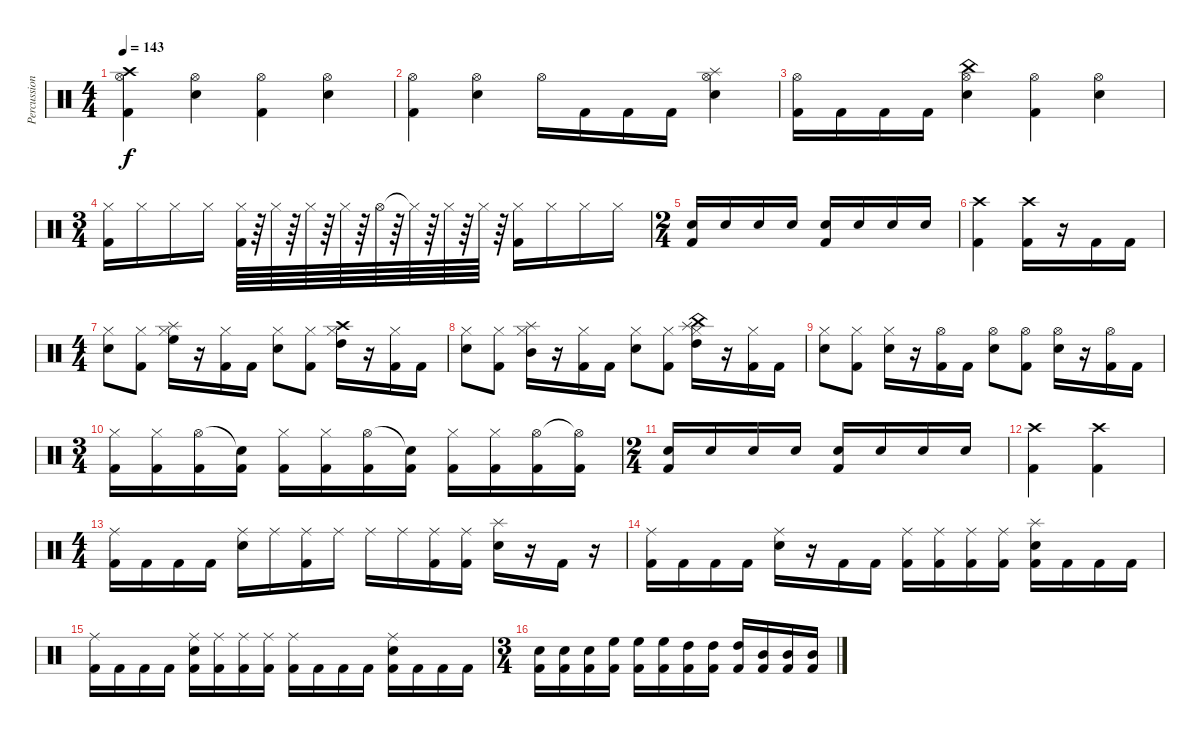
\track ("Percussions" "Percussion") {instrument percussion}
\staff {score}
\articulation defaults
\ts (4 4)
\tempo 143
\clef neutral
\ks c
("Hi-Hat (open)" "Crash high (hit)" "Kick (hit) 2").4{dy f} ("Hi-Hat (open)" "Snare (hit) 2").4 ("Hi-Hat (open)" "Kick (hit) 2").4 ("Hi-Hat (open)" "Snare (hit) 2").4 |
("Hi-Hat (open)" "Kick (hit) 2").4 ("Hi-Hat (open)" "Snare (hit) 2").4 "Hi-Hat (open)".16 "Kick (hit) 2".16 "Kick (hit) 2".16 "Kick (hit) 2".16 ("Hi-Hat (open)" "Splash (hit)" "Snare (hit) 2").4 |
("Hi-Hat (open)" "Kick (hit) 2").16 "Kick (hit) 2".16 "Kick (hit) 2".16 "Kick (hit) 2".16 ("Hi-Hat (open)" "China (hit)" "Snare (hit) 2").4 ("Hi-Hat (open)" "Kick (hit) 2").4 ("Hi-Hat (open)" "Snare (hit) 2").4 |
\ts (3 4)
("Hi-Hat (closed)" "Kick (hit) 2").16 "Hi-Hat (closed)".16 "Hi-Hat (closed)".16 "Hi-Hat (closed)".16 ("Hi-Hat (closed)" "Kick (hit) 2").64 r.64 "Hi-Hat (closed)".64 r.64 "Hi-Hat (closed)".64 r.64 "Hi-Hat (closed)".64 r.64 "Hi-Hat (open)".64 r.64 "Hi-Hat (closed)"{t}.64 r.64 "Hi-Hat (closed)".64 r.64 "Hi-Hat (closed)".64 r.64 ("Hi-Hat (closed)" "Kick (hit) 2").16 "Hi-Hat (closed)".16 "Hi-Hat (closed)".16 "Hi-Hat (closed)".16 |
\ts (2 4)
("Snare (hit) 2" "Kick (hit) 2").16 "Snare (hit) 2".16 "Snare (hit) 2".16 "Snare (hit) 2".16 ("Snare (hit) 2" "Kick (hit) 2").16 "Snare (hit) 2".16 "Snare (hit) 2".16 "Snare (hit) 2".16 |
("Crash high (hit)" "Kick (hit) 2").4 ("Crash high (hit)" "Kick (hit) 2").16 r.16 "Kick (hit) 2".16 "Kick (hit) 2".16 |
\ts (4 4)
("Hi-Hat (closed)" "Snare (hit) 2").8 ("Hi-Hat (closed)" "Kick (hit) 2").8 ("Hi-Hat (closed)" "Splash (hit)" "High Floor Tom (hit)").16 r.16 ("Hi-Hat (closed)" "Kick (hit) 2").16 "Kick (hit) 2".16 ("Hi-Hat (closed)" "Snare (hit) 2").8 ("Hi-Hat (closed)" "Kick (hit) 2").8 ("Hi-Hat (closed)" "Crash high (hit)" "High Tom (hit)").16 r.16 ("Hi-Hat (closed)" "Kick (hit) 2").16 "Kick (hit) 2".16 |
("Hi-Hat (closed)" "Snare (hit) 2").8 ("Hi-Hat (closed)" "Kick (hit) 2").8 ("Hi-Hat (closed)" "Splash (hit)" "Mid Tom (hit)").16 r.16 ("Hi-Hat (closed)" "Kick (hit) 2").16 "Kick (hit) 2".16 ("Hi-Hat (closed)" "Snare (hit) 2").8 ("Hi-Hat (closed)" "Kick (hit) 2").8 ("Hi-Hat (closed)" "China (hit)" "High Tom (hit)" "Splash (hit)").16 r.16 ("Hi-Hat (closed)" "Kick (hit) 2").16 "Kick (hit) 2".16 |
("Hi-Hat (closed)" "Snare (hit) 2").8 ("Hi-Hat (closed)" "Kick (hit) 2").8 ("Hi-Hat (closed)" "Snare (hit) 2").16 r.16 ("Hi-Hat (open)" "Kick (hit) 2").16 "Kick (hit) 2".16 ("Hi-Hat (open)" "Snare (hit) 2").8 ("Hi-Hat (open)" "Kick (hit) 2").8 ("Hi-Hat (open)" "Snare (hit) 2").16 r.16 ("Hi-Hat (open)" "Kick (hit) 2").16 "Kick (hit) 2".16 |
\ts (3 4)
("Hi-Hat (closed)" "Kick (hit) 2").16 ("Hi-Hat (closed)" "Kick (hit) 2").16 ("Hi-Hat (open)" "Kick (hit) 2").16 ("Snare (hit)"{t} "Kick (hit) 2").16 ("Hi-Hat (closed)" "Kick (hit) 2").16 ("Hi-Hat (closed)" "Kick (hit) 2").16 ("Hi-Hat (open)" "Kick (hit) 2").16 ("Snare (hit)"{t} "Kick (hit) 2").16 ("Hi-Hat (closed)" "Kick (hit) 2").16 ("Hi-Hat (closed)" "Kick (hit) 2").16 ("Hi-Hat (open)" "Kick (hit) 2").16 ("Hi-Hat (open)"{t} "Kick (hit) 2").16 |
\ts (2 4)
("Snare (hit) 2" "Kick (hit) 2").16 "Snare (hit) 2".16 "Snare (hit) 2".16 "Snare (hit) 2".16 ("Snare (hit) 2" "Kick (hit) 2").16 "Snare (hit) 2".16 "Snare (hit) 2".16 "Snare (hit) 2".16 |
("Crash high (hit)" "Kick (hit) 2").4 ("Crash high (hit)" "Kick (hit) 2").4 |
\ts (4 4)
("Ride (middle)" "Kick (hit) 2").16 "Kick (hit) 2".16 "Kick (hit) 2".16 "Kick (hit) 2".16 ("Ride (middle)" "Snare (hit) 2").16 "Ride (middle)".16 ("Ride (middle)" "Kick (hit) 2").16 "Ride (middle)".16 "Ride (middle)".16 "Ride (middle)".16 ("Ride (middle)" "Kick (hit) 2").16 ("Ride (middle)" "Kick (hit) 2").16 ("Splash (hit)" "Snare (hit) 2").16 r.16 "Kick (hit) 2".16 r.16 |
("Ride (middle)" "Kick (hit) 2").16 "Kick (hit) 2".16 "Kick (hit) 2".16 "Kick (hit) 2".16 ("Ride (middle)" "Snare (hit) 2").16 r.16 "Kick (hit) 2".16 "Kick (hit) 2".16 ("Ride (middle)" "Kick (hit) 2").16 ("Ride (middle)" "Kick (hit) 2").16 ("Ride (middle)" "Kick (hit) 2").16 ("Ride (middle)" "Kick (hit) 2").16 ("Splash (hit)" "Snare (hit) 2" "Kick (hit) 2").16 "Kick (hit) 2".16 "Kick (hit) 2".16 "Kick (hit) 2".16 |
("Ride (middle)" "Kick (hit) 2").16 "Kick (hit) 2".16 "Kick (hit) 2".16 "Kick (hit) 2".16 ("Ride (middle)" "Snare (hit) 2" "Kick (hit) 2").16 ("Ride (middle)" "Kick (hit) 2").16 ("Ride (middle)" "Kick (hit) 2").16 ("Ride (middle)" "Kick (hit) 2").16 ("Ride (middle)" "Kick (hit) 2").16 "Kick (hit) 2".16 "Kick (hit) 2".16 "Kick (hit) 2".16 ("Ride (middle)" "Snare (hit) 2" "Kick (hit) 2").16 "Kick (hit) 2".16 "Kick (hit) 2".16 "Kick (hit) 2".16 |
\ts (3 4)
("Snare (hit) 2" "Kick (hit) 2").16 ("Snare (hit) 2" "Kick (hit) 2").16 ("Snare (hit) 2" "Kick (hit) 2").16 ("High Floor Tom (hit)" "Kick (hit) 2").16 ("High Floor Tom (hit)" "Kick (hit) 2").16 ("High Floor Tom (hit)" "Kick (hit) 2").16 ("High Tom (hit)" "Kick (hit) 2").16 ("High Tom (hit)" "Kick (hit) 2").16 ("High Tom (hit)" "Kick (hit) 2").16 ("Mid Tom (hit)" "Kick (hit) 2").16 ("Mid Tom (hit)" "Kick (hit) 2").16 ("Mid Tom (hit)" "Kick (hit) 2").16
